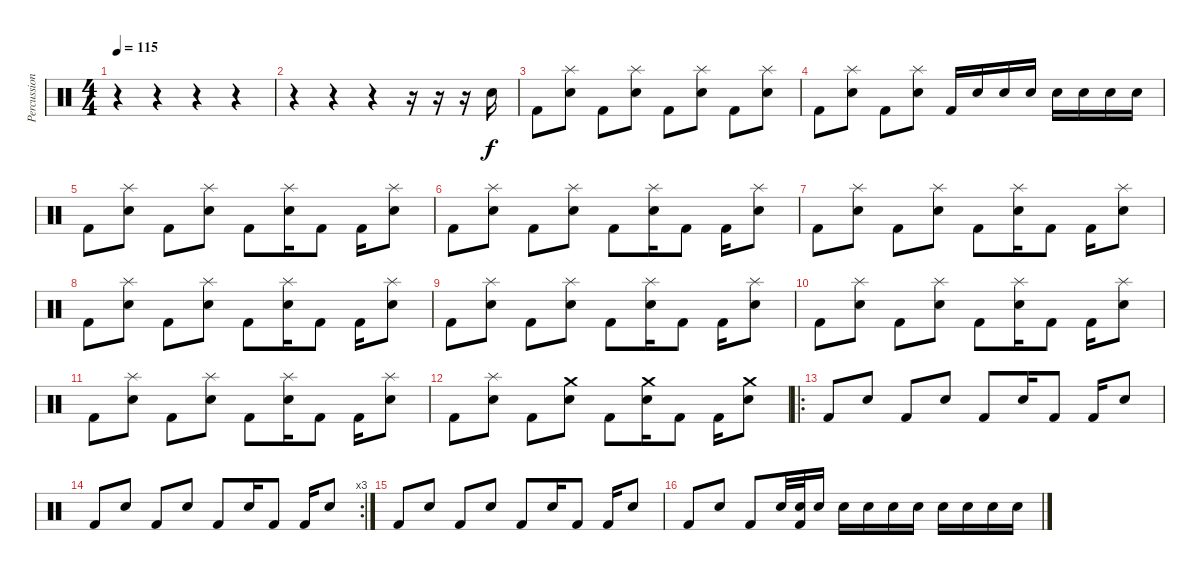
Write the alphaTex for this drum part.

\track ("Percussion" "Percussion") {instrument percussion}
\staff {score}
\articulation defaults
\ts (4 4)
\tempo 115
\clef neutral
\ks c
r.4{dy f} r.4 r.4 r.4 |
r.4 r.4 r.4 r.16 r.16 r.16 "Snare (hit) 2".16 |
"Kick (hit) 2".8 ("Splash (hit)" "Snare (hit) 2").8 "Kick (hit) 2".8 ("Splash (hit)" "Snare (hit) 2").8 "Kick (hit) 2".8 ("Splash (hit)" "Snare (hit) 2").8 "Kick (hit) 2".8 ("Splash (hit)" "Snare (hit) 2").8 |
"Kick (hit) 2".8 ("Splash (hit)" "Snare (hit) 2").8 "Kick (hit) 2".8 ("Splash (hit)" "Snare (hit) 2").8 "Kick (hit) 2".16 "Snare (hit) 2".16 "Snare (hit) 2".16 "Snare (hit) 2".16 "Snare (hit) 2".16 "Snare (hit) 2".16 "Snare (hit) 2".16 "Snare (hit) 2".16 |
"Kick (hit) 2".8 ("Splash (hit)" "Snare (hit) 2").8 "Kick (hit) 2".8 ("Splash (hit)" "Snare (hit) 2").8 "Kick (hit) 2".8 ("Splash (hit)" "Snare (hit) 2").16 "Kick (hit) 2".8 "Kick (hit) 2".16 ("Splash (hit)" "Snare (hit) 2").8 |
"Kick (hit) 2".8 ("Splash (hit)" "Snare (hit) 2").8 "Kick (hit) 2".8 ("Splash (hit)" "Snare (hit) 2").8 "Kick (hit) 2".8 ("Splash (hit)" "Snare (hit) 2").16 "Kick (hit) 2".8 "Kick (hit) 2".16 ("Splash (hit)" "Snare (hit) 2").8 |
"Kick (hit) 2".8 ("Splash (hit)" "Snare (hit) 2").8 "Kick (hit) 2".8 ("Splash (hit)" "Snare (hit) 2").8 "Kick (hit) 2".8 ("Splash (hit)" "Snare (hit) 2").16 "Kick (hit) 2".8 "Kick (hit) 2".16 ("Splash (hit)" "Snare (hit) 2").8 |
"Kick (hit) 2".8 ("Splash (hit)" "Snare (hit) 2").8 "Kick (hit) 2".8 ("Splash (hit)" "Snare (hit) 2").8 "Kick (hit) 2".8 ("Splash (hit)" "Snare (hit) 2").16 "Kick (hit) 2".8 "Kick (hit) 2".16 ("Splash (hit)" "Snare (hit) 2").8 |
"Kick (hit) 2".8 ("Splash (hit)" "Snare (hit) 2").8 "Kick (hit) 2".8 ("Splash (hit)" "Snare (hit) 2").8 "Kick (hit) 2".8 ("Splash (hit)" "Snare (hit) 2").16 "Kick (hit) 2".8 "Kick (hit) 2".16 ("Splash (hit)" "Snare (hit) 2").8 |
"Kick (hit) 2".8 ("Splash (hit)" "Snare (hit) 2").8 "Kick (hit) 2".8 ("Splash (hit)" "Snare (hit) 2").8 "Kick (hit) 2".8 ("Splash (hit)" "Snare (hit) 2").16 "Kick (hit) 2".8 "Kick (hit) 2".16 ("Splash (hit)" "Snare (hit) 2").8 |
"Kick (hit) 2".8 ("Splash (hit)" "Snare (hit) 2").8 "Kick (hit) 2".8 ("Splash (hit)" "Snare (hit) 2").8 "Kick (hit) 2".8 ("Splash (hit)" "Snare (hit) 2").16 "Kick (hit) 2".8 "Kick (hit) 2".16 ("Splash (hit)" "Snare (hit) 2").8 |
"Kick (hit) 2".8 ("Splash (hit)" "Snare (hit) 2").8 "Kick (hit) 2".8 ("Crash medium (hit)" "Snare (hit) 2").8 "Kick (hit) 2".8 ("Crash medium (hit)" "Snare (hit) 2").16 "Kick (hit) 2".8 "Kick (hit) 2".16 ("Crash medium (hit)" "Snare (hit) 2").8 |
\ro "Kick (hit) 2".8 "Snare (hit) 2".8 "Kick (hit) 2".8 "Snare (hit) 2".8 "Kick (hit) 2".8 "Snare (hit) 2".16 "Kick (hit) 2".8 "Kick (hit) 2".16 "Snare (hit) 2".8
|
\rc 3 "Kick (hit) 2".8 "Snare (hit) 2".8 "Kick (hit) 2".8 "Snare (hit) 2".8 "Kick (hit) 2".8 "Snare (hit) 2".16 "Kick (hit) 2".8 "Kick (hit) 2".16 "Snare (hit) 2".8
|
"Kick (hit) 2".8 "Snare (hit) 2".8 "Kick (hit) 2".8 "Snare (hit) 2".8 "Kick (hit) 2".8 "Snare (hit) 2".16 "Kick (hit) 2".8 "Kick (hit) 2".16 "Snare (hit) 2".8 |
"Kick (hit) 2".8 "Snare (hit) 2".8 "Kick (hit) 2".8 "Snare (hit) 2".32 ("Snare (hit) 2" "Kick (hit) 2").32 "Snare (hit) 2".16 "Snare (hit) 2".16 "Snare (hit) 2".16 "Snare (hit) 2".16 "Snare (hit) 2".16 "Snare (hit) 2".16 "Snare (hit) 2".16 "Snare (hit) 2".16 "Snare (hit) 2".16
